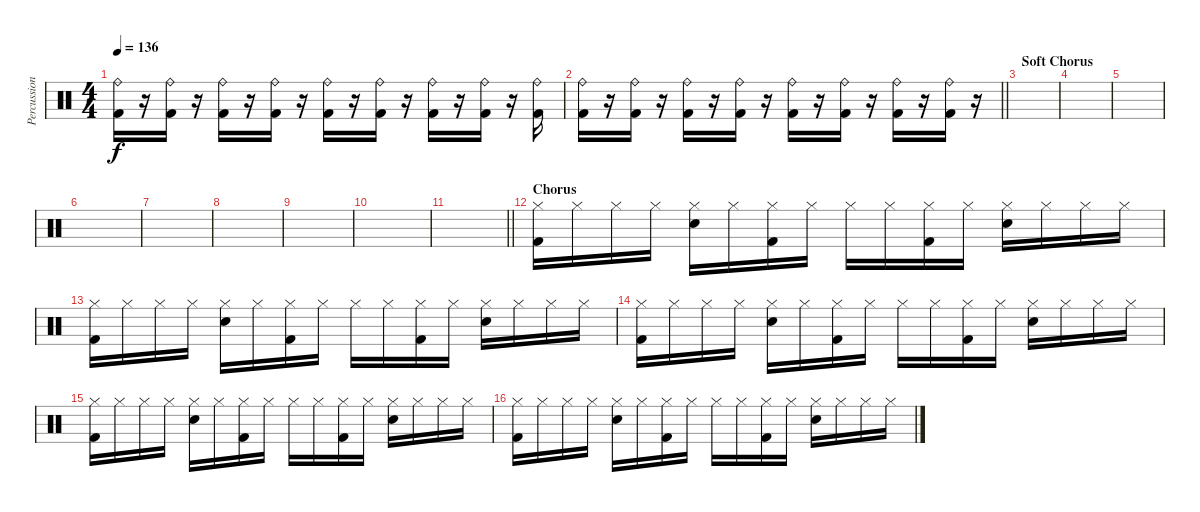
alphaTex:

\track ("Percussion" "Percussion") {instrument percussion}
\staff {score}
\articulation defaults
\ts (4 4)
\tempo 136
\clef neutral
\ks c
("Ride (bell)" "Kick (hit) 2").16{dy f} r.16 ("Ride (bell)" "Kick (hit) 2").16 r.16 ("Ride (bell)" "Kick (hit) 2").16 r.16 ("Ride (bell)" "Kick (hit) 2").16 r.16 ("Ride (bell)" "Kick (hit) 2").16 r.16 ("Ride (bell)" "Kick (hit) 2").16 r.16 ("Ride (bell)" "Kick (hit) 2").16 r.16 ("Ride (bell)" "Kick (hit) 2").16 r.16 ("Ride (bell)" "Kick (hit) 2").16 |
\barLineRight lightlight
("Ride (bell)" "Kick (hit) 2").16 r.16 ("Ride (bell)" "Kick (hit) 2").16 r.16 ("Ride (bell)" "Kick (hit) 2").16 r.16 ("Ride (bell)" "Kick (hit) 2").16 r.16 ("Ride (bell)" "Kick (hit) 2").16 r.16 ("Ride (bell)" "Kick (hit) 2").16 r.16 ("Ride (bell)" "Kick (hit) 2").16 r.16 ("Ride (bell)" "Kick (hit) 2").16 r.16 |
\section ("" "Soft Chorus")
|
|
|
|
|
|
|
|
\barLineRight lightlight
|
\section ("" "Chorus")
("Hi-Hat (closed)" "Kick (hit) 2").16 "Hi-Hat (closed)".16 "Hi-Hat (closed)".16 "Hi-Hat (closed)".16 ("Hi-Hat (closed)" "Electric Snare (hit)").16 "Hi-Hat (closed)".16 ("Hi-Hat (closed)" "Kick (hit) 2").16 "Hi-Hat (closed)".16 "Hi-Hat (closed)".16 "Hi-Hat (closed)".16 ("Hi-Hat (closed)" "Kick (hit) 2").16 "Hi-Hat (closed)".16 ("Hi-Hat (closed)" "Electric Snare (hit)").16 "Hi-Hat (closed)".16 "Hi-Hat (closed)".16 "Hi-Hat (closed)".16 |
("Hi-Hat (closed)" "Kick (hit) 2").16 "Hi-Hat (closed)".16 "Hi-Hat (closed)".16 "Hi-Hat (closed)".16 ("Hi-Hat (closed)" "Electric Snare (hit)").16 "Hi-Hat (closed)".16 ("Hi-Hat (closed)" "Kick (hit) 2").16 "Hi-Hat (closed)".16 "Hi-Hat (closed)".16 "Hi-Hat (closed)".16 ("Hi-Hat (closed)" "Kick (hit) 2").16 "Hi-Hat (closed)".16 ("Hi-Hat (closed)" "Electric Snare (hit)").16 "Hi-Hat (closed)".16 "Hi-Hat (closed)".16 "Hi-Hat (closed)".16 |
("Hi-Hat (closed)" "Kick (hit) 2").16 "Hi-Hat (closed)".16 "Hi-Hat (closed)".16 "Hi-Hat (closed)".16 ("Hi-Hat (closed)" "Electric Snare (hit)").16 "Hi-Hat (closed)".16 ("Hi-Hat (closed)" "Kick (hit) 2").16 "Hi-Hat (closed)".16 "Hi-Hat (closed)".16 "Hi-Hat (closed)".16 ("Hi-Hat (closed)" "Kick (hit) 2").16 "Hi-Hat (closed)".16 ("Hi-Hat (closed)" "Electric Snare (hit)").16 "Hi-Hat (closed)".16 "Hi-Hat (closed)".16 "Hi-Hat (closed)".16 |
("Hi-Hat (closed)" "Kick (hit) 2").16 "Hi-Hat (closed)".16 "Hi-Hat (closed)".16 "Hi-Hat (closed)".16 ("Hi-Hat (closed)" "Electric Snare (hit)").16 "Hi-Hat (closed)".16 ("Hi-Hat (closed)" "Kick (hit) 2").16 "Hi-Hat (closed)".16 "Hi-Hat (closed)".16 "Hi-Hat (closed)".16 ("Hi-Hat (closed)" "Kick (hit) 2").16 "Hi-Hat (closed)".16 ("Hi-Hat (closed)" "Electric Snare (hit)").16 "Hi-Hat (closed)".16 "Hi-Hat (closed)".16 "Hi-Hat (closed)".16 |
("Hi-Hat (closed)" "Kick (hit) 2").16 "Hi-Hat (closed)".16 "Hi-Hat (closed)".16 "Hi-Hat (closed)".16 ("Hi-Hat (closed)" "Electric Snare (hit)").16 "Hi-Hat (closed)".16 ("Hi-Hat (closed)" "Kick (hit) 2").16 "Hi-Hat (closed)".16 "Hi-Hat (closed)".16 "Hi-Hat (closed)".16 ("Hi-Hat (closed)" "Kick (hit) 2").16 "Hi-Hat (closed)".16 ("Hi-Hat (closed)" "Electric Snare (hit)").16 "Hi-Hat (closed)".16 "Hi-Hat (closed)".16 "Hi-Hat (closed)".16
